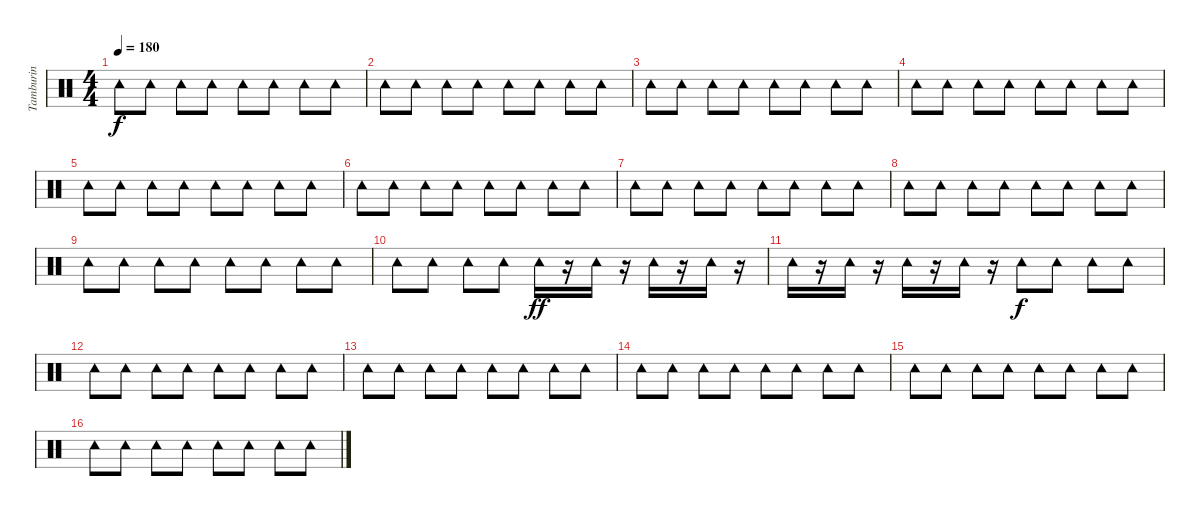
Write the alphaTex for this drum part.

\track ("Tamburin" "Tamburin") {instrument percussion}
\staff {score}
\articulation defaults
\ts (4 4)
\tempo 180
\clef neutral
\ks c "Tambourine (hit)".8{dy f} "Tambourine (hit)".8 "Tambourine (hit)".8 "Tambourine (hit)".8 "Tambourine (hit)".8 "Tambourine (hit)".8 "Tambourine (hit)".8 "Tambourine (hit)".8
|
"Tambourine (hit)".8 "Tambourine (hit)".8 "Tambourine (hit)".8 "Tambourine (hit)".8 "Tambourine (hit)".8 "Tambourine (hit)".8 "Tambourine (hit)".8 "Tambourine (hit)".8 |
"Tambourine (hit)".8 "Tambourine (hit)".8 "Tambourine (hit)".8 "Tambourine (hit)".8 "Tambourine (hit)".8 "Tambourine (hit)".8 "Tambourine (hit)".8 "Tambourine (hit)".8 |
"Tambourine (hit)".8 "Tambourine (hit)".8 "Tambourine (hit)".8 "Tambourine (hit)".8 "Tambourine (hit)".8 "Tambourine (hit)".8 "Tambourine (hit)".8 "Tambourine (hit)".8 |
"Tambourine (hit)".8 "Tambourine (hit)".8 "Tambourine (hit)".8 "Tambourine (hit)".8 "Tambourine (hit)".8 "Tambourine (hit)".8 "Tambourine (hit)".8 "Tambourine (hit)".8 |
"Tambourine (hit)".8 "Tambourine (hit)".8 "Tambourine (hit)".8 "Tambourine (hit)".8 "Tambourine (hit)".8 "Tambourine (hit)".8 "Tambourine (hit)".8 "Tambourine (hit)".8 |
"Tambourine (hit)".8 "Tambourine (hit)".8 "Tambourine (hit)".8 "Tambourine (hit)".8 "Tambourine (hit)".8 "Tambourine (hit)".8 "Tambourine (hit)".8 "Tambourine (hit)".8 |
"Tambourine (hit)".8 "Tambourine (hit)".8 "Tambourine (hit)".8 "Tambourine (hit)".8 "Tambourine (hit)".8 "Tambourine (hit)".8 "Tambourine (hit)".8 "Tambourine (hit)".8 |
"Tambourine (hit)".8 "Tambourine (hit)".8 "Tambourine (hit)".8 "Tambourine (hit)".8 "Tambourine (hit)".8 "Tambourine (hit)".8 "Tambourine (hit)".8 "Tambourine (hit)".8 |
"Tambourine (hit)".8 "Tambourine (hit)".8 "Tambourine (hit)".8 "Tambourine (hit)".8 "Tambourine (hit)".16{dy ff} r.16 "Tambourine (hit)".16 r.16 "Tambourine (hit)".16 r.16 "Tambourine (hit)".16 r.16 |
"Tambourine (hit)".16 r.16 "Tambourine (hit)".16 r.16 "Tambourine (hit)".16 r.16 "Tambourine (hit)".16 r.16 "Tambourine (hit)".8{dy f} "Tambourine (hit)".8 "Tambourine (hit)".8 "Tambourine (hit)".8 |
"Tambourine (hit)".8 "Tambourine (hit)".8 "Tambourine (hit)".8 "Tambourine (hit)".8 "Tambourine (hit)".8 "Tambourine (hit)".8 "Tambourine (hit)".8 "Tambourine (hit)".8 |
"Tambourine (hit)".8 "Tambourine (hit)".8 "Tambourine (hit)".8 "Tambourine (hit)".8 "Tambourine (hit)".8 "Tambourine (hit)".8 "Tambourine (hit)".8 "Tambourine (hit)".8 |
"Tambourine (hit)".8 "Tambourine (hit)".8 "Tambourine (hit)".8 "Tambourine (hit)".8 "Tambourine (hit)".8 "Tambourine (hit)".8 "Tambourine (hit)".8 "Tambourine (hit)".8 |
"Tambourine (hit)".8 "Tambourine (hit)".8 "Tambourine (hit)".8 "Tambourine (hit)".8 "Tambourine (hit)".8 "Tambourine (hit)".8 "Tambourine (hit)".8 "Tambourine (hit)".8 |
"Tambourine (hit)".8 "Tambourine (hit)".8 "Tambourine (hit)".8 "Tambourine (hit)".8 "Tambourine (hit)".8 "Tambourine (hit)".8 "Tambourine (hit)".8 "Tambourine (hit)".8
